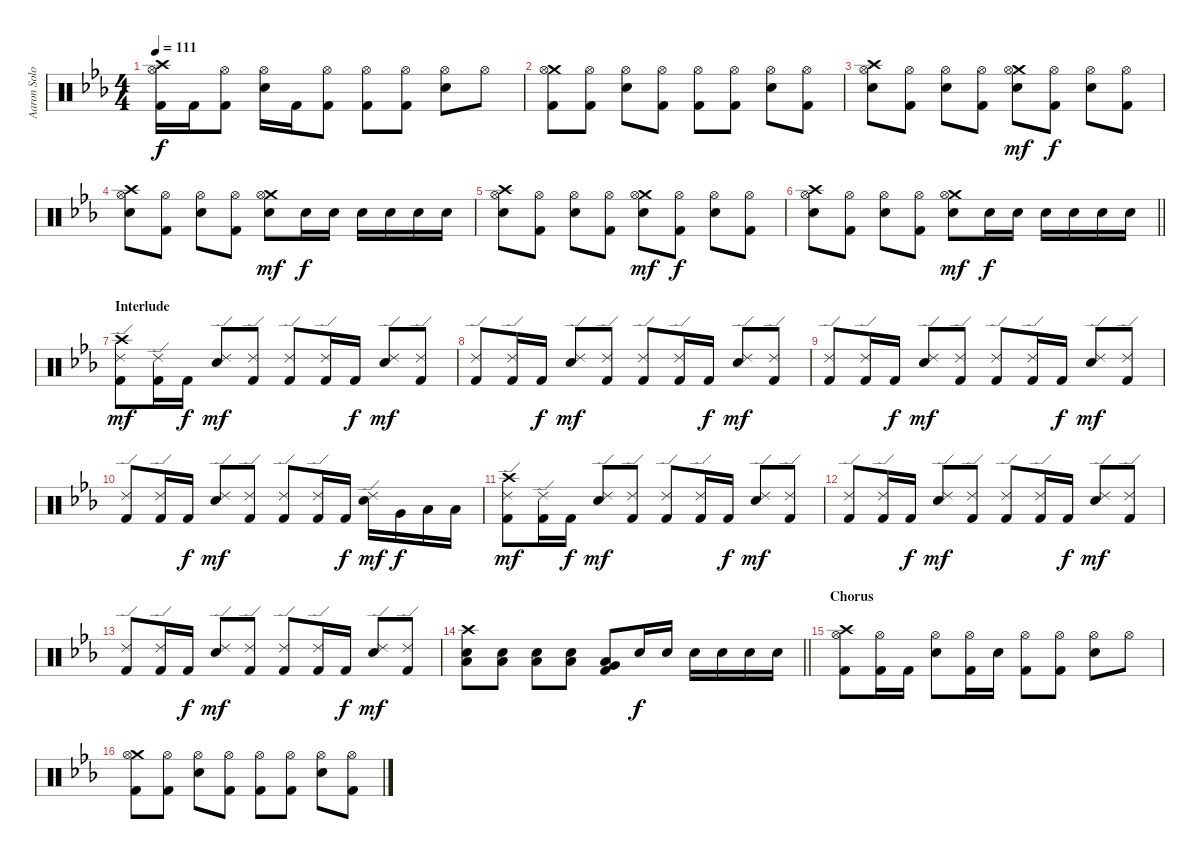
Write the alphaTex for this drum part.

\track ("Aaron Solowoniuk (Drums)" "Aaron Solo") {instrument percussion}
\staff {score}
\articulation defaults
\ts (4 4)
\tempo 111
\clef neutral
\ks cminor
("Crash high (hit)" "Hi-Hat (open)" "Kick (hit) 2").16{dy f} "Kick (hit) 2".16 ("Hi-Hat (open)" "Kick (hit) 2").8 ("Hi-Hat (open)" "Snare (hit) 2").16 "Kick (hit) 2".16 ("Hi-Hat (open)" "Kick (hit) 2").8 ("Hi-Hat (open)" "Kick (hit) 2").8 ("Hi-Hat (open)" "Kick (hit) 2").8 ("Hi-Hat (open)" "Snare (hit) 2").8 "Hi-Hat (open)".8 |
("Crash medium (hit)" "Hi-Hat (open)" "Kick (hit) 2").8 ("Hi-Hat (open)" "Kick (hit) 2").8 ("Hi-Hat (open)" "Snare (hit) 2").8 ("Hi-Hat (open)" "Kick (hit) 2").8 ("Hi-Hat (open)" "Kick (hit) 2").8 ("Hi-Hat (open)" "Kick (hit) 2").8 ("Hi-Hat (open)" "Snare (hit) 2").8 ("Hi-Hat (open)" "Kick (hit) 2").8 |
("Crash high (hit)" "Hi-Hat (open)" "Snare (hit) 2").8 ("Hi-Hat (open)" "Kick (hit) 2").8 ("Hi-Hat (open)" "Snare (hit) 2").8 ("Hi-Hat (open)" "Kick (hit) 2").8 ("Crash medium (hit)" "Hi-Hat (open)" "Snare (hit) 2").8{dy mf} ("Hi-Hat (open)" "Kick (hit) 2").8{dy f} ("Hi-Hat (open)" "Snare (hit) 2").8 ("Hi-Hat (open)" "Kick (hit) 2").8 |
("Crash high (hit)" "Hi-Hat (open)" "Snare (hit) 2").8 ("Hi-Hat (open)" "Kick (hit) 2").8 ("Hi-Hat (open)" "Snare (hit) 2").8 ("Hi-Hat (open)" "Kick (hit) 2").8 ("Crash medium (hit)" "Hi-Hat (open)" "Snare (hit) 2").8{dy mf} "Snare (hit) 2".16{dy f} "Snare (hit) 2".16 "Snare (hit) 2".16 "Snare (hit) 2".16 "Snare (hit) 2".16 "Snare (hit) 2".16 |
("Crash high (hit)" "Hi-Hat (open)" "Snare (hit) 2").8 ("Hi-Hat (open)" "Kick (hit) 2").8 ("Hi-Hat (open)" "Snare (hit) 2").8 ("Hi-Hat (open)" "Kick (hit) 2").8 ("Crash medium (hit)" "Hi-Hat (open)" "Snare (hit) 2").8{dy mf} ("Hi-Hat (open)" "Kick (hit) 2").8{dy f} ("Hi-Hat (open)" "Snare (hit) 2").8 ("Hi-Hat (open)" "Kick (hit) 2").8 |
\barLineRight lightlight
("Crash high (hit)" "Hi-Hat (open)" "Snare (hit) 2").8 ("Hi-Hat (open)" "Kick (hit) 2").8 ("Hi-Hat (open)" "Snare (hit) 2").8 ("Hi-Hat (open)" "Kick (hit) 2").8 ("Crash medium (hit)" "Hi-Hat (open)" "Snare (hit) 2").8{dy mf} "Snare (hit) 2".16{dy f} "Snare (hit) 2".16 "Snare (hit) 2".16 "Snare (hit) 2".16 "Snare (hit) 2".16 "Snare (hit) 2".16 |
\section ("" "Interlude ")
("Crash high (hit)" "Ride (edge) 2" "Kick (hit) 2").8{dy mf} ("Ride (edge) 2" "Kick (hit) 2").16 "Kick (hit) 2".16{dy f} ("Ride (edge) 2" "Snare (hit) 2").8{dy mf} ("Ride (edge) 2" "Kick (hit) 2").8 ("Ride (edge) 2" "Kick (hit) 2").8 ("Ride (edge) 2" "Kick (hit) 2").16 "Kick (hit) 2".16{dy f} ("Ride (edge) 2" "Snare (hit) 2").8{dy mf} ("Ride (edge) 2" "Kick (hit) 2").8 |
("Ride (edge) 2" "Kick (hit) 2").8 ("Ride (edge) 2" "Kick (hit) 2").16 "Kick (hit) 2".16{dy f} ("Ride (edge) 2" "Snare (hit) 2").8{dy mf} ("Ride (edge) 2" "Kick (hit) 2").8 ("Ride (edge) 2" "Kick (hit) 2").8 ("Ride (edge) 2" "Kick (hit) 2").16 "Kick (hit) 2".16{dy f} ("Ride (edge) 2" "Snare (hit) 2").8{dy mf} ("Ride (edge) 2" "Kick (hit) 2").8 |
("Ride (edge) 2" "Kick (hit) 2").8 ("Ride (edge) 2" "Kick (hit) 2").16 "Kick (hit) 2".16{dy f} ("Ride (edge) 2" "Snare (hit) 2").8{dy mf} ("Ride (edge) 2" "Kick (hit) 2").8 ("Ride (edge) 2" "Kick (hit) 2").8 ("Ride (edge) 2" "Kick (hit) 2").16 "Kick (hit) 2".16{dy f} ("Ride (edge) 2" "Snare (hit) 2").8{dy mf} ("Ride (edge) 2" "Kick (hit) 2").8 |
("Ride (edge) 2" "Kick (hit) 2").8 ("Ride (edge) 2" "Kick (hit) 2").16 "Kick (hit) 2".16{dy f} ("Ride (edge) 2" "Snare (hit) 2").8{dy mf} ("Ride (edge) 2" "Kick (hit) 2").8 ("Ride (edge) 2" "Kick (hit) 2").8 ("Ride (edge) 2" "Kick (hit) 2").16 "Kick (hit) 2".16{dy f} ("Ride (edge) 2" "Snare (hit) 2").16{dy mf} "Very Low Tom (hit)".16{dy f} "Low Floor Tom (hit)".16 "Low Floor Tom (hit)".16 |
("Crash high (hit)" "Ride (edge) 2" "Kick (hit) 2").8{dy mf} ("Ride (edge) 2" "Kick (hit) 2").16 "Kick (hit) 2".16{dy f} ("Ride (edge) 2" "Snare (hit) 2").8{dy mf} ("Ride (edge) 2" "Kick (hit) 2").8 ("Ride (edge) 2" "Kick (hit) 2").8 ("Ride (edge) 2" "Kick (hit) 2").16 "Kick (hit) 2".16{dy f} ("Ride (edge) 2" "Snare (hit) 2").8{dy mf} ("Ride (edge) 2" "Kick (hit) 2").8 |
("Ride (edge) 2" "Kick (hit) 2").8 ("Ride (edge) 2" "Kick (hit) 2").16 "Kick (hit) 2".16{dy f} ("Ride (edge) 2" "Snare (hit) 2").8{dy mf} ("Ride (edge) 2" "Kick (hit) 2").8 ("Ride (edge) 2" "Kick (hit) 2").8 ("Ride (edge) 2" "Kick (hit) 2").16 "Kick (hit) 2".16{dy f} ("Ride (edge) 2" "Snare (hit) 2").8{dy mf} ("Ride (edge) 2" "Kick (hit) 2").8 |
("Ride (edge) 2" "Kick (hit) 2").8 ("Ride (edge) 2" "Kick (hit) 2").16 "Kick (hit) 2".16{dy f} ("Ride (edge) 2" "Snare (hit) 2").8{dy mf} ("Ride (edge) 2" "Kick (hit) 2").8 ("Ride (edge) 2" "Kick (hit) 2").8 ("Ride (edge) 2" "Kick (hit) 2").16 "Kick (hit) 2".16{dy f} ("Ride (edge) 2" "Snare (hit) 2").8{dy mf} ("Ride (edge) 2" "Kick (hit) 2").8 |
\barLineRight lightlight
("Crash high (hit)" "Low Floor Tom (hit)" "Snare (hit) 2").8 ("Low Floor Tom (hit)" "Snare (hit) 2").8 ("Low Floor Tom (hit)" "Snare (hit) 2").8 ("Low Floor Tom (hit)" "Snare (hit) 2").8 ("Very Low Tom (hit)" "Low Floor Tom (hit)" "Kick (hit) 2").8 "Snare (hit) 2".16{dy f} "Snare (hit) 2".16 "Snare (hit) 2".16 "Snare (hit) 2".16 "Snare (hit) 2".16 "Snare (hit) 2".16 |
\section ("" "Chorus")
("Crash high (hit)" "Hi-Hat (open)" "Kick (hit) 2").8 ("Hi-Hat (open)" "Kick (hit) 2").16 "Kick (hit) 2".16 ("Hi-Hat (open)" "Snare (hit) 2").8 ("Hi-Hat (open)" "Kick (hit) 2").16 "Snare (hit) 2".16 ("Hi-Hat (open)" "Kick (hit) 2").8 ("Hi-Hat (open)" "Kick (hit) 2").8 ("Hi-Hat (open)" "Snare (hit) 2").8 "Hi-Hat (open)".8 |
("Crash medium (hit)" "Hi-Hat (open)" "Kick (hit) 2").8 ("Hi-Hat (open)" "Kick (hit) 2").8 ("Hi-Hat (open)" "Snare (hit) 2").8 ("Hi-Hat (open)" "Kick (hit) 2").8 ("Hi-Hat (open)" "Kick (hit) 2").8 ("Hi-Hat (open)" "Kick (hit) 2").8 ("Hi-Hat (open)" "Snare (hit) 2").8 ("Hi-Hat (open)" "Kick (hit) 2").8
